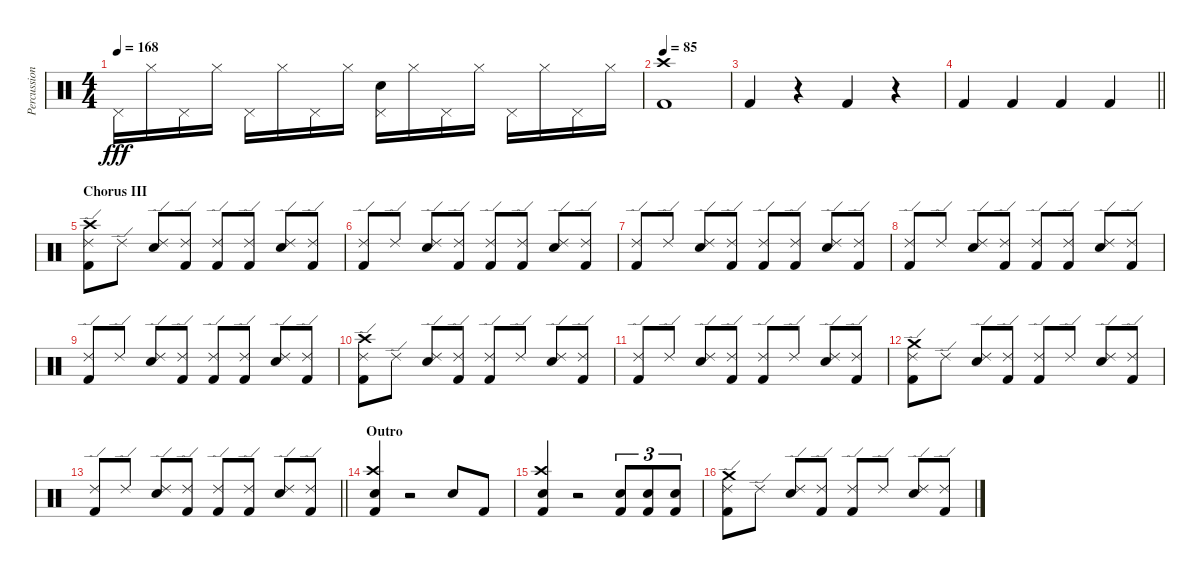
\track ("Percussion" "Percussion") {instrument percussion}
\staff {score}
\articulation defaults
\ts (4 4)
\tempo 168
\clef neutral
\ks c "Pedal Hi-Hat (hit)".16{dy fff} "Hi-Hat (closed)".16 "Pedal Hi-Hat (hit)".16 "Hi-Hat (closed)".16 "Pedal Hi-Hat (hit)".16 "Hi-Hat (closed)".16 "Pedal Hi-Hat (hit)".16 "Hi-Hat (closed)".16
("Pedal Hi-Hat (hit)" "Snare (hit) 2").16 "Hi-Hat (closed)".16 "Pedal Hi-Hat (hit)".16 "Hi-Hat (closed)".16 "Pedal Hi-Hat (hit)".16 "Hi-Hat (closed)".16 "Pedal Hi-Hat (hit)".16 "Hi-Hat (closed)".16 |
\tempo 85
("Crash high (hit)" "Kick (hit) 2").1 |
"Kick (hit) 2".4 r.4 "Kick (hit) 2".4 r.4 |
\barLineRight lightlight "Kick (hit) 2".4 "Kick (hit) 2".4 "Kick (hit) 2".4 "Kick (hit) 2".4
|
\section ("" "Chorus III")
("Kick (hit) 2" "Crash high (hit)" "Ride (edge) 2").8 "Ride (edge) 2".8 ("Ride (edge) 2" "Snare (hit) 2").8 ("Kick (hit) 2" "Ride (edge) 2").8 ("Kick (hit) 2" "Ride (edge) 2").8 ("Kick (hit) 2" "Ride (edge) 2").8 ("Ride (edge) 2" "Snare (hit) 2").8 ("Kick (hit) 2" "Ride (edge) 2").8 |
("Kick (hit) 2" "Ride (edge) 2").8 "Ride (edge) 2".8 ("Ride (edge) 2" "Snare (hit) 2").8 ("Kick (hit) 2" "Ride (edge) 2").8 ("Kick (hit) 2" "Ride (edge) 2").8 ("Kick (hit) 2" "Ride (edge) 2").8 ("Ride (edge) 2" "Snare (hit) 2").8 ("Kick (hit) 2" "Ride (edge) 2").8 |
("Kick (hit) 2" "Ride (edge) 2").8 "Ride (edge) 2".8 ("Ride (edge) 2" "Snare (hit) 2").8 ("Kick (hit) 2" "Ride (edge) 2").8 ("Kick (hit) 2" "Ride (edge) 2").8 ("Kick (hit) 2" "Ride (edge) 2").8 ("Ride (edge) 2" "Snare (hit) 2").8 ("Kick (hit) 2" "Ride (edge) 2").8 |
("Kick (hit) 2" "Ride (edge) 2").8 "Ride (edge) 2".8 ("Ride (edge) 2" "Snare (hit) 2").8 ("Kick (hit) 2" "Ride (edge) 2").8 ("Kick (hit) 2" "Ride (edge) 2").8 ("Kick (hit) 2" "Ride (edge) 2").8 ("Ride (edge) 2" "Snare (hit) 2").8 ("Kick (hit) 2" "Ride (edge) 2").8 |
("Kick (hit) 2" "Ride (edge) 2").8 "Ride (edge) 2".8 ("Ride (edge) 2" "Snare (hit) 2").8 ("Kick (hit) 2" "Ride (edge) 2").8 ("Kick (hit) 2" "Ride (edge) 2").8 ("Kick (hit) 2" "Ride (edge) 2").8 ("Ride (edge) 2" "Snare (hit) 2").8 ("Kick (hit) 2" "Ride (edge) 2").8 |
("Kick (hit) 2" "Crash high (hit)" "Ride (edge) 2").8 "Ride (edge) 2".8 ("Ride (edge) 2" "Snare (hit) 2").8 ("Kick (hit) 2" "Ride (edge) 2").8 ("Kick (hit) 2" "Ride (edge) 2").8 "Ride (edge) 2".8 ("Ride (edge) 2" "Snare (hit) 2").8 ("Kick (hit) 2" "Ride (edge) 2").8 |
("Kick (hit) 2" "Ride (edge) 2").8 "Ride (edge) 2".8 ("Ride (edge) 2" "Snare (hit) 2").8 ("Kick (hit) 2" "Ride (edge) 2").8 ("Kick (hit) 2" "Ride (edge) 2").8 "Ride (edge) 2".8 ("Ride (edge) 2" "Snare (hit) 2").8 ("Kick (hit) 2" "Ride (edge) 2").8 |
("Kick (hit) 2" "Crash medium (hit)" "Ride (edge) 2").8 "Ride (edge) 2".8 ("Ride (edge) 2" "Snare (hit) 2").8 ("Kick (hit) 2" "Ride (edge) 2").8 ("Kick (hit) 2" "Ride (edge) 2").8 "Ride (edge) 2".8 ("Ride (edge) 2" "Snare (hit) 2").8 ("Kick (hit) 2" "Ride (edge) 2").8 |
\barLineRight lightlight
("Kick (hit) 2" "Ride (edge) 2").8 "Ride (edge) 2".8 ("Ride (edge) 2" "Snare (hit) 2").8 ("Kick (hit) 2" "Ride (edge) 2").8 ("Kick (hit) 2" "Ride (edge) 2").8 ("Kick (hit) 2" "Ride (edge) 2").8 ("Ride (edge) 2" "Snare (hit) 2").8 ("Kick (hit) 2" "Ride (edge) 2").8 |
\section ("" "Outro")
("Crash high (hit)" "Snare (hit) 2" "Kick (hit) 2").4 r.2 "Snare (hit) 2".8 "Kick (hit) 2".8 |
("Crash high (hit)" "Snare (hit) 2" "Kick (hit) 2").4 r.2 ("Snare (hit) 2" "Kick (hit) 2").8{tu (3 2)} ("Snare (hit) 2" "Kick (hit) 2").8{tu (3 2)} ("Snare (hit) 2" "Kick (hit) 2").8{tu (3 2)} |
("Kick (hit) 2" "Crash medium (hit)" "Ride (edge) 2").8 "Ride (edge) 2".8 ("Ride (edge) 2" "Snare (hit) 2").8 ("Kick (hit) 2" "Ride (edge) 2").8 ("Kick (hit) 2" "Ride (edge) 2").8 "Ride (edge) 2".8 ("Ride (edge) 2" "Snare (hit) 2").8 ("Kick (hit) 2" "Ride (edge) 2").8
